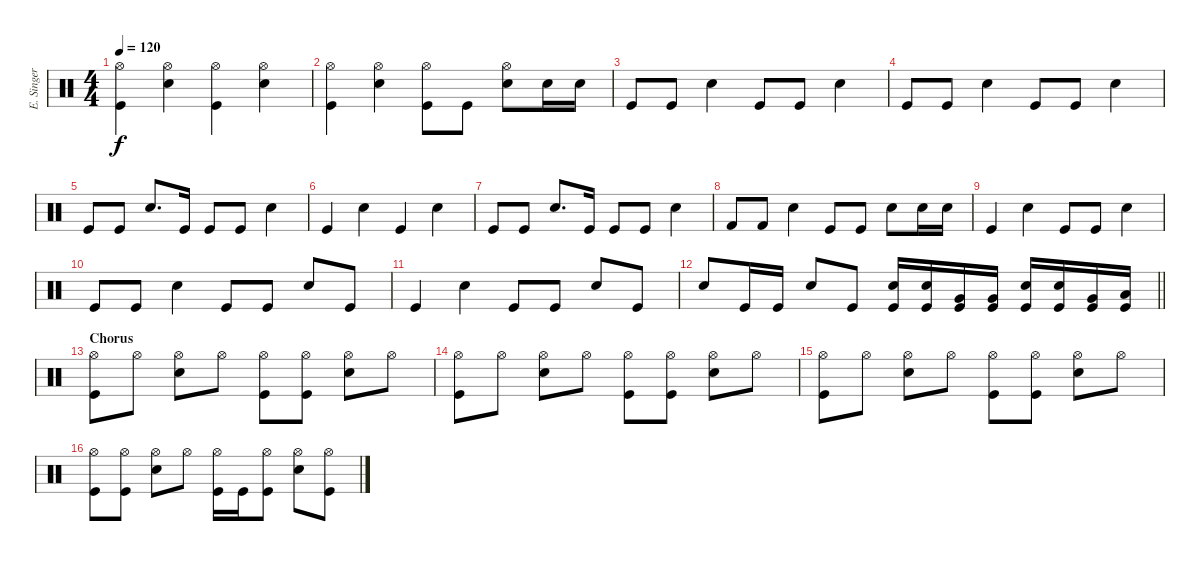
\track ("E. Singer - Drums" "E. Singer ") {instrument percussion}
\staff {score}
\articulation defaults
\ts (4 4)
\tempo 120
\clef neutral
\ks c
("Kick (hit)" "Hi-Hat (open)").4{dy f} ("Snare (hit) 2" "Hi-Hat (open)").4 ("Kick (hit)" "Hi-Hat (open)").4 ("Snare (hit) 2" "Hi-Hat (open)").4 |
("Kick (hit)" "Hi-Hat (open)").4 ("Snare (hit) 2" "Hi-Hat (open)").4 ("Kick (hit)" "Hi-Hat (open)").8 "Kick (hit)".8 ("Snare (hit) 2" "Hi-Hat (open)").8 "Snare (hit) 2".16 "Snare (hit) 2".16 |
"Kick (hit)".8 "Kick (hit)".8 "Snare (hit) 2".4 "Kick (hit)".8 "Kick (hit)".8 "Snare (hit) 2".4 |
"Kick (hit)".8 "Kick (hit)".8 "Snare (hit) 2".4 "Kick (hit)".8 "Kick (hit)".8 "Snare (hit) 2".4 |
"Kick (hit)".8 "Kick (hit)".8 "Snare (hit) 2".8{d} "Kick (hit)".16 "Kick (hit)".8 "Kick (hit)".8 "Snare (hit) 2".4 |
"Kick (hit)".4 "Snare (hit) 2".4 "Kick (hit)".4 "Snare (hit) 2".4 |
"Kick (hit)".8 "Kick (hit)".8 "Snare (hit) 2".8{d} "Kick (hit)".16 "Kick (hit)".8 "Kick (hit)".8 "Snare (hit) 2".4 |
"Kick (hit) 2".8 "Kick (hit) 2".8 "Snare (hit) 2".4 "Kick (hit)".8 "Kick (hit)".8 "Snare (hit) 2".8 "Snare (hit) 2".16 "Snare (hit) 2".16 |
"Kick (hit)".4 "Snare (hit) 2".4 "Kick (hit)".8 "Kick (hit)".8 "Snare (hit) 2".4 |
"Kick (hit)".8 "Kick (hit)".8 "Snare (hit) 2".4 "Kick (hit)".8 "Kick (hit)".8 "Snare (hit) 2".8 "Kick (hit)".8 |
"Kick (hit)".4 "Snare (hit) 2".4 "Kick (hit)".8 "Kick (hit)".8 "Snare (hit) 2".8 "Kick (hit)".8 |
\barLineRight lightlight "Snare (hit) 2".8 "Kick (hit)".16 "Kick (hit)".16 "Snare (hit) 2".8 "Kick (hit)".8
("Kick (hit)" "Snare (hit) 2").16 ("Kick (hit)" "Snare (hit) 2").16 ("Kick (hit)" "Very Low Tom (hit)").16 ("Kick (hit)" "Very Low Tom (hit)").16 ("Kick (hit)" "Snare (hit) 2").16 ("Kick (hit)" "Snare (hit) 2").16 ("Kick (hit)" "Very Low Tom (hit)").16 ("Kick (hit)" "Low Floor Tom (hit)").16 |
\section ("" "Chorus")
("Kick (hit)" "Hi-Hat (open)").8 "Hi-Hat (open)".8 ("Snare (hit) 2" "Hi-Hat (open)").8 "Hi-Hat (open)".8 ("Kick (hit)" "Hi-Hat (open)").8 ("Kick (hit)" "Hi-Hat (open)").8 ("Snare (hit) 2" "Hi-Hat (open)").8 "Hi-Hat (open)".8 |
("Kick (hit)" "Hi-Hat (open)").8 "Hi-Hat (open)".8 ("Snare (hit) 2" "Hi-Hat (open)").8 "Hi-Hat (open)".8 ("Kick (hit)" "Hi-Hat (open)").8 ("Kick (hit)" "Hi-Hat (open)").8 ("Snare (hit) 2" "Hi-Hat (open)").8 "Hi-Hat (open)".8 |
("Kick (hit)" "Hi-Hat (open)").8 "Hi-Hat (open)".8 ("Snare (hit) 2" "Hi-Hat (open)").8 "Hi-Hat (open)".8 ("Kick (hit)" "Hi-Hat (open)").8 ("Kick (hit)" "Hi-Hat (open)").8 ("Snare (hit) 2" "Hi-Hat (open)").8 "Hi-Hat (open)".8 |
("Kick (hit)" "Hi-Hat (open)").8 ("Kick (hit)" "Hi-Hat (open)").8 ("Snare (hit) 2" "Hi-Hat (open)").8 "Hi-Hat (open)".8 ("Kick (hit)" "Hi-Hat (open)").16 "Kick (hit)".16 ("Kick (hit)" "Hi-Hat (open)").8 ("Snare (hit) 2" "Hi-Hat (open)").8 ("Kick (hit)" "Hi-Hat (open)").8
